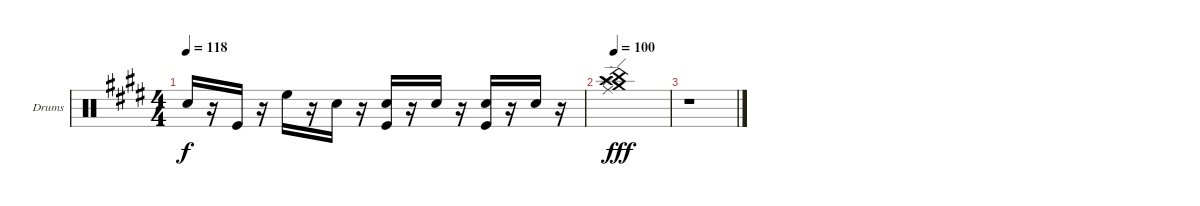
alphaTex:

\bracketExtendMode groupsimilarinstruments
\firstSystemTrackNameOrientation horizontal
\otherSystemsTrackNameOrientation horizontal
\track ("Drumkit" "Drums") {instrument percussion}
\staff {score}
\articulation defaults
\ts (4 4)
\tempo 118
\clef neutral
\ks e "Snare (hit) 2".16{dy f}
r.16 "Kick (hit)".16 r.16 "High Floor Tom (hit)".16 r.16 "Snare (hit) 2".16 r.16 ("Snare (hit) 2" "Kick (hit)").16 r.16 "Snare (hit) 2".16 r.16 ("Snare (hit) 2" "Kick (hit)").16 r.16 "Snare (hit) 2".16 r.16 |
\tempo 100
("Crash medium (hit)" "China (hit)" "Splash (hit)" "Crash high (hit)" "Ride (edge)").1{dy fff} |
r.1
